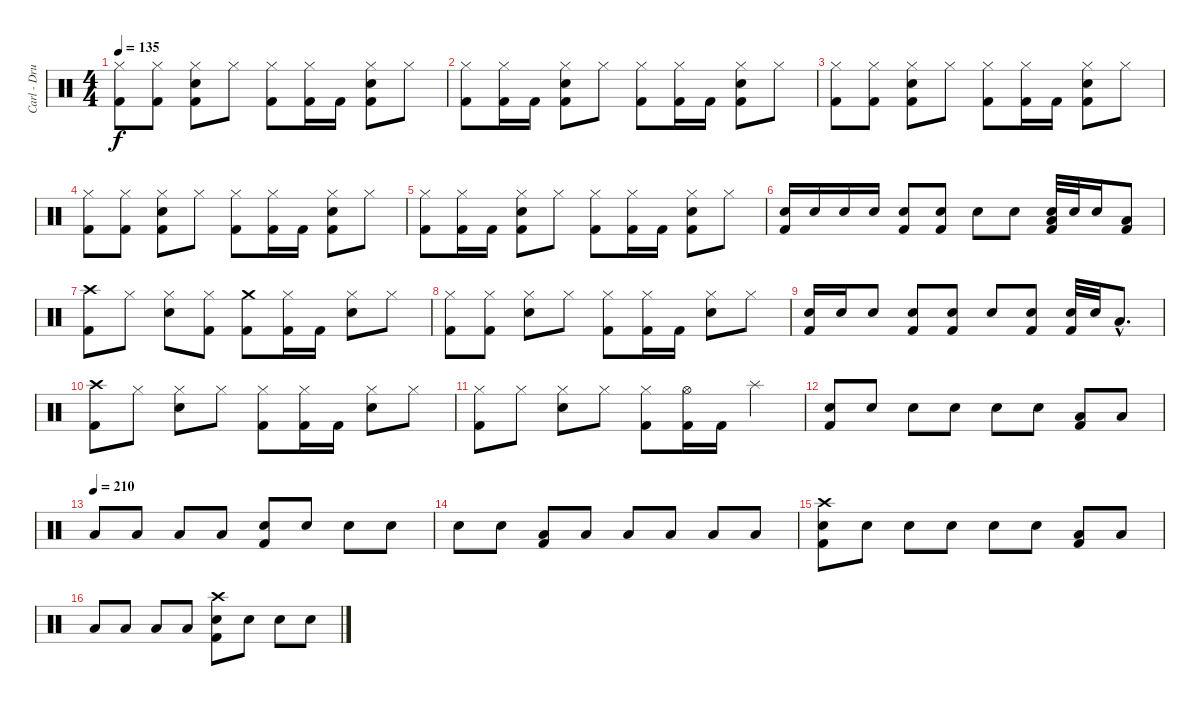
\track ("Carl - Drums" "Carl - Dru") {instrument percussion}
\staff {score}
\articulation defaults
\ts (4 4)
\tempo 135
\clef neutral
\ks c
("Hi-Hat (closed)" "Kick (hit) 2").8{dy f} ("Hi-Hat (closed)" "Kick (hit) 2").8 ("Electric Snare (hit)" "Hi-Hat (closed)" "Kick (hit) 2").8 "Hi-Hat (closed)".8 ("Hi-Hat (closed)" "Kick (hit) 2").8 ("Hi-Hat (closed)" "Kick (hit) 2").16 "Kick (hit) 2".16 ("Electric Snare (hit)" "Hi-Hat (closed)" "Kick (hit) 2").8 "Hi-Hat (closed)".8 |
("Hi-Hat (closed)" "Kick (hit) 2").8 ("Hi-Hat (closed)" "Kick (hit) 2").16 "Kick (hit) 2".16 ("Electric Snare (hit)" "Hi-Hat (closed)" "Kick (hit) 2").8 "Hi-Hat (closed)".8 ("Hi-Hat (closed)" "Kick (hit) 2").8 ("Hi-Hat (closed)" "Kick (hit) 2").16 "Kick (hit) 2".16 ("Electric Snare (hit)" "Hi-Hat (closed)" "Kick (hit) 2").8 "Hi-Hat (closed)".8 |
("Hi-Hat (closed)" "Kick (hit) 2").8 ("Hi-Hat (closed)" "Kick (hit) 2").8 ("Electric Snare (hit)" "Hi-Hat (closed)" "Kick (hit) 2").8 "Hi-Hat (closed)".8 ("Hi-Hat (closed)" "Kick (hit) 2").8 ("Hi-Hat (closed)" "Kick (hit) 2").16 "Kick (hit) 2".16 ("Electric Snare (hit)" "Hi-Hat (closed)" "Kick (hit) 2").8 "Hi-Hat (closed)".8 |
("Hi-Hat (closed)" "Kick (hit) 2").8 ("Hi-Hat (closed)" "Kick (hit) 2").8 ("Electric Snare (hit)" "Hi-Hat (closed)" "Kick (hit) 2").8 "Hi-Hat (closed)".8 ("Hi-Hat (closed)" "Kick (hit) 2").8 ("Hi-Hat (closed)" "Kick (hit) 2").16 "Kick (hit) 2".16 ("Electric Snare (hit)" "Hi-Hat (closed)" "Kick (hit) 2").8 "Hi-Hat (closed)".8 |
("Hi-Hat (closed)" "Kick (hit) 2").8 ("Hi-Hat (closed)" "Kick (hit) 2").16 "Kick (hit) 2".16 ("Electric Snare (hit)" "Hi-Hat (closed)" "Kick (hit) 2").8 "Hi-Hat (closed)".8 ("Hi-Hat (closed)" "Kick (hit) 2").8 ("Hi-Hat (closed)" "Kick (hit) 2").16 "Kick (hit) 2".16 ("Electric Snare (hit)" "Hi-Hat (closed)" "Kick (hit) 2").8 "Hi-Hat (closed)".8 |
("Electric Snare (hit)" "Kick (hit) 2").16 "Electric Snare (hit)".16 "Electric Snare (hit)".16 "Electric Snare (hit)".16 ("Electric Snare (hit)" "Kick (hit) 2").8 ("Electric Snare (hit)" "Kick (hit) 2").8 "Electric Snare (hit)".8 "Electric Snare (hit)".8 ("Low Floor Tom (hit)" "Electric Snare (hit)" "Kick (hit) 2").32 "Electric Snare (hit)".32 "Electric Snare (hit)".16 ("Low Floor Tom (hit)" "Kick (hit) 2").8 |
("Crash high (hit)" "Kick (hit) 2").8 "Hi-Hat (closed)".8 ("Electric Snare (hit)" "Hi-Hat (closed)").8 ("Hi-Hat (closed)" "Kick (hit) 2").8 ("Crash medium (hit)" "Kick (hit) 2").8 ("Hi-Hat (closed)" "Kick (hit) 2").16 "Kick (hit) 2".16 ("Electric Snare (hit)" "Hi-Hat (closed)").8 "Hi-Hat (closed)".8 |
("Hi-Hat (closed)" "Kick (hit) 2").8 ("Hi-Hat (closed)" "Kick (hit) 2").8 ("Electric Snare (hit)" "Hi-Hat (closed)").8 "Hi-Hat (closed)".8 ("Hi-Hat (closed)" "Kick (hit) 2").8 ("Hi-Hat (closed)" "Kick (hit) 2").16 "Kick (hit) 2".16 ("Electric Snare (hit)" "Hi-Hat (closed)").8 "Hi-Hat (closed)".8 |
("Electric Snare (hit)" "Kick (hit) 2").16 "Electric Snare (hit)".16 "Electric Snare (hit)".8 ("Electric Snare (hit)" "Kick (hit) 2").8 ("Electric Snare (hit)" "Kick (hit) 2").8 "Electric Snare (hit)".8 ("Electric Snare (hit)" "Kick (hit) 2").8 ("Electric Snare (hit)" "Kick (hit) 2").32 "Electric Snare (hit)".32 "Low Tom (hit)"{hac}.8{d} |
("Crash high (hit)" "Kick (hit) 2").8 "Hi-Hat (closed)".8 ("Electric Snare (hit)" "Hi-Hat (closed)").8 "Hi-Hat (closed)".8 ("Hi-Hat (closed)" "Kick (hit) 2").8 ("Hi-Hat (closed)" "Kick (hit) 2").16 "Kick (hit) 2".16 ("Electric Snare (hit)" "Hi-Hat (closed)").8 "Hi-Hat (closed)".8 |
("Hi-Hat (closed)" "Kick (hit) 2").8 "Hi-Hat (closed)".8 ("Electric Snare (hit)" "Hi-Hat (closed)").8 "Hi-Hat (closed)".8 ("Hi-Hat (closed)" "Kick (hit) 2").8 ("Hi-Hat (open)" "Kick (hit) 2").16 "Kick (hit) 2".16 "Splash (hit)".4 |
("Electric Snare (hit)" "Kick (hit) 2").8 "Electric Snare (hit)".8 "Electric Snare (hit)".8 "Electric Snare (hit)".8 "Electric Snare (hit)".8 "Electric Snare (hit)".8 ("Low Floor Tom (hit)" "Kick (hit) 2").8 "Low Floor Tom (hit)".8 |
\tempo (210)
"Low Floor Tom (hit)".8 "Low Floor Tom (hit)".8 "Low Floor Tom (hit)".8 "Low Floor Tom (hit)".8 ("Electric Snare (hit)" "Kick (hit) 2").8 "Electric Snare (hit)".8 "Electric Snare (hit)".8 "Electric Snare (hit)".8 |
"Electric Snare (hit)".8 "Electric Snare (hit)".8 ("Low Floor Tom (hit)" "Kick (hit) 2").8 "Low Floor Tom (hit)".8 "Low Floor Tom (hit)".8 "Low Floor Tom (hit)".8 "Low Floor Tom (hit)".8 "Low Floor Tom (hit)".8 |
("Crash high (hit)" "Electric Snare (hit)" "Kick (hit) 2").8 "Electric Snare (hit)".8 "Electric Snare (hit)".8 "Electric Snare (hit)".8 "Electric Snare (hit)".8 "Electric Snare (hit)".8 ("Low Floor Tom (hit)" "Kick (hit) 2").8 "Low Floor Tom (hit)".8 |
"Low Floor Tom (hit)".8 "Low Floor Tom (hit)".8 "Low Floor Tom (hit)".8 "Low Floor Tom (hit)".8 ("Crash high (hit)" "Electric Snare (hit)" "Kick (hit) 2").8 "Electric Snare (hit)".8 "Electric Snare (hit)".8 "Electric Snare (hit)".8
